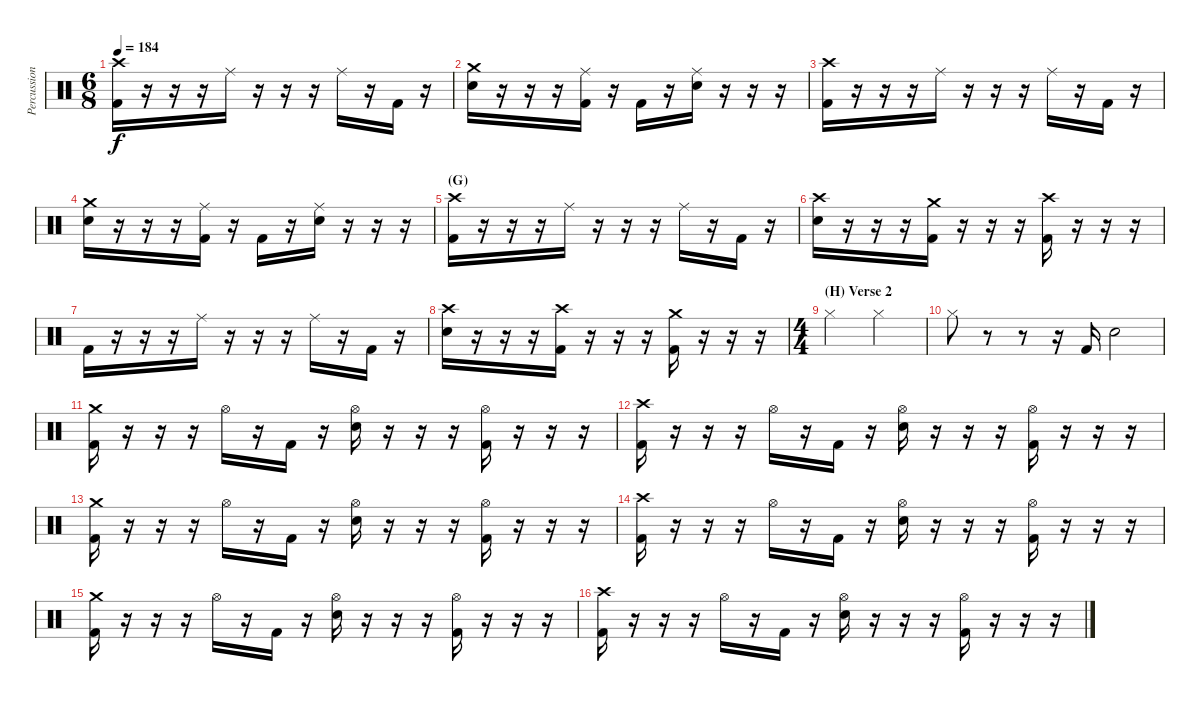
\track ("Percussion" "Percussion") {instrument percussion}
\staff {score}
\articulation defaults
\ts (6 8)
\tempo 184
\clef neutral
\ks c
("Crash high (hit)" "Kick (hit) 2").16{dy f} r.16 r.16 r.16 "Ride (middle)".16 r.16 r.16 r.16 "Ride (middle)".16 r.16 "Kick (hit) 2".16 r.16 |
("Crash medium (hit)" "Electric Snare (hit)").16 r.16 r.16 r.16 ("Ride (middle)" "Kick (hit) 2").16 r.16 "Kick (hit) 2".16 r.16 ("Ride (middle)" "Electric Snare (hit)").16 r.16 r.16 r.16 |
("Crash high (hit)" "Kick (hit) 2").16 r.16 r.16 r.16 "Ride (middle)".16 r.16 r.16 r.16 "Ride (middle)".16 r.16 "Kick (hit) 2".16 r.16 |
("Crash medium (hit)" "Electric Snare (hit)").16 r.16 r.16 r.16 ("Ride (middle)" "Kick (hit) 2").16 r.16 "Kick (hit) 2".16 r.16 ("Ride (middle)" "Electric Snare (hit)").16 r.16 r.16 r.16 |
\section ("" "(G)")
("Crash high (hit)" "Kick (hit) 2").16 r.16 r.16 r.16 "Ride (middle)".16 r.16 r.16 r.16 "Ride (middle)".16 r.16 "Kick (hit) 2".16 r.16 |
("Crash high (hit)" "Electric Snare (hit)").16 r.16 r.16 r.16 ("Crash medium (hit)" "Kick (hit) 2").16 r.16 r.16 r.16 ("Crash high (hit)" "Kick (hit) 2").16 r.16 r.16 r.16 |
"Kick (hit) 2".16 r.16 r.16 r.16 "Ride (middle)".16 r.16 r.16 r.16 "Ride (middle)".16 r.16 "Kick (hit) 2".16 r.16 |
("Crash high (hit)" "Electric Snare (hit)").16 r.16 r.16 r.16 ("Crash high (hit)" "Kick (hit) 2").16 r.16 r.16 r.16 ("Crash medium (hit)" "Kick (hit) 2").16 r.16 r.16 r.16 |
\ts (4 4)
\section ("" "(H) Verse 2")
"Hi-Hat (closed)".2 "Hi-Hat (closed)".2 |
"Hi-Hat (closed)".8 r.8 r.8 r.16 "Kick (hit) 2".16 "Electric Snare (hit)".2 |
("Crash medium (hit)" "Kick (hit) 2").16 r.16 r.16 r.16 "Hi-Hat (open)".16 r.16 "Kick (hit) 2".16 r.16 ("Hi-Hat (open)" "Electric Snare (hit)").16 r.16 r.16 r.16 ("Hi-Hat (open)" "Kick (hit) 2").16 r.16 r.16 r.16 |
("Crash high (hit)" "Kick (hit) 2").16 r.16 r.16 r.16 "Hi-Hat (open)".16 r.16 "Kick (hit) 2".16 r.16 ("Hi-Hat (open)" "Electric Snare (hit)").16 r.16 r.16 r.16 ("Hi-Hat (open)" "Kick (hit) 2").16 r.16 r.16 r.16 |
("Crash medium (hit)" "Kick (hit) 2").16 r.16 r.16 r.16 "Hi-Hat (open)".16 r.16 "Kick (hit) 2".16 r.16 ("Hi-Hat (open)" "Electric Snare (hit)").16 r.16 r.16 r.16 ("Hi-Hat (open)" "Kick (hit) 2").16 r.16 r.16 r.16 |
("Crash high (hit)" "Kick (hit) 2").16 r.16 r.16 r.16 "Hi-Hat (open)".16 r.16 "Kick (hit) 2".16 r.16 ("Hi-Hat (open)" "Electric Snare (hit)").16 r.16 r.16 r.16 ("Hi-Hat (open)" "Kick (hit) 2").16 r.16 r.16 r.16 |
("Crash medium (hit)" "Kick (hit) 2").16 r.16 r.16 r.16 "Hi-Hat (open)".16 r.16 "Kick (hit) 2".16 r.16 ("Hi-Hat (open)" "Electric Snare (hit)").16 r.16 r.16 r.16 ("Hi-Hat (open)" "Kick (hit) 2").16 r.16 r.16 r.16 |
("Crash high (hit)" "Kick (hit) 2").16 r.16 r.16 r.16 "Hi-Hat (open)".16 r.16 "Kick (hit) 2".16 r.16 ("Hi-Hat (open)" "Electric Snare (hit)").16 r.16 r.16 r.16 ("Hi-Hat (open)" "Kick (hit) 2").16 r.16 r.16 r.16
